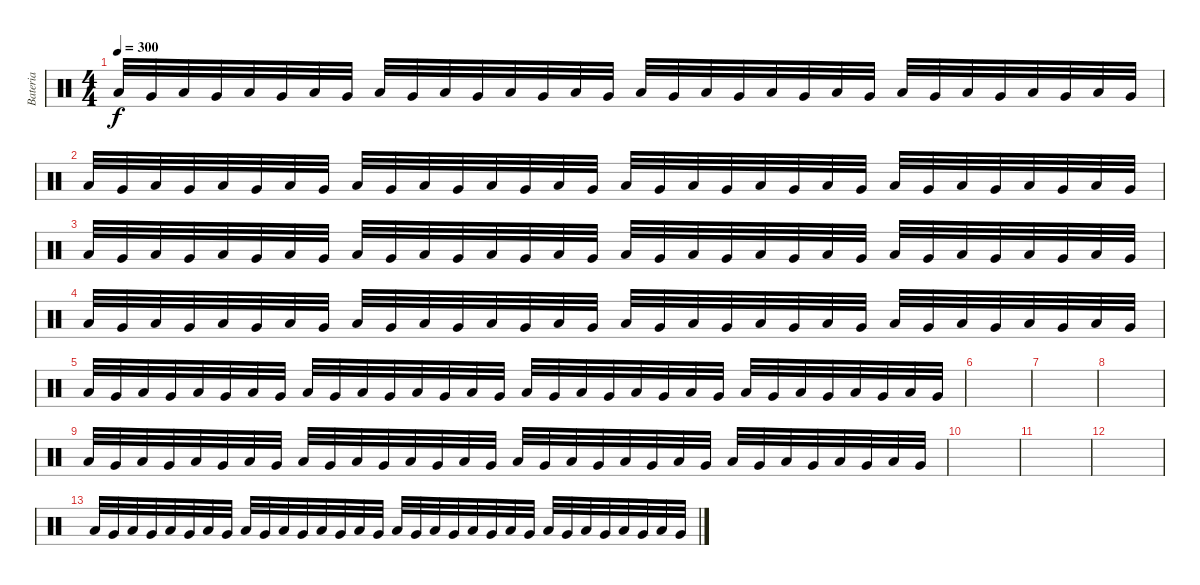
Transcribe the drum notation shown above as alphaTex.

\track ("Bateria" "Bateria") {instrument percussion}
\staff {score}
\articulation defaults
\ts (4 4)
\tempo 300
\clef neutral
\ks c "Low Tom (hit)".32{dy f} "Very Low Tom (hit)".32 "Low Tom (hit)".32 "Very Low Tom (hit)".32 "Low Tom (hit)".32 "Very Low Tom (hit)".32 "Low Tom (hit)".32 "Very Low Tom (hit)".32 "Low Tom (hit)".32 "Very Low Tom (hit)".32 "Low Tom (hit)".32 "Very Low Tom (hit)".32 "Low Tom (hit)".32 "Very Low Tom (hit)".32 "Low Tom (hit)".32 "Very Low Tom (hit)".32 "Low Tom (hit)".32 "Very Low Tom (hit)".32 "Low Tom (hit)".32 "Very Low Tom (hit)".32 "Low Tom (hit)".32 "Very Low Tom (hit)".32 "Low Tom (hit)".32 "Very Low Tom (hit)".32 "Low Tom (hit)".32 "Very Low Tom (hit)".32 "Low Tom (hit)".32 "Very Low Tom (hit)".32 "Low Tom (hit)".32 "Very Low Tom (hit)".32 "Low Tom (hit)".32 "Very Low Tom (hit)".32
|
"Low Tom (hit)".32 "Very Low Tom (hit)".32 "Low Tom (hit)".32 "Very Low Tom (hit)".32 "Low Tom (hit)".32 "Very Low Tom (hit)".32 "Low Tom (hit)".32 "Very Low Tom (hit)".32 "Low Tom (hit)".32 "Very Low Tom (hit)".32 "Low Tom (hit)".32 "Very Low Tom (hit)".32 "Low Tom (hit)".32 "Very Low Tom (hit)".32 "Low Tom (hit)".32 "Very Low Tom (hit)".32 "Low Tom (hit)".32 "Very Low Tom (hit)".32 "Low Tom (hit)".32 "Very Low Tom (hit)".32 "Low Tom (hit)".32 "Very Low Tom (hit)".32 "Low Tom (hit)".32 "Very Low Tom (hit)".32 "Low Tom (hit)".32 "Very Low Tom (hit)".32 "Low Tom (hit)".32 "Very Low Tom (hit)".32 "Low Tom (hit)".32 "Very Low Tom (hit)".32 "Low Tom (hit)".32 "Very Low Tom (hit)".32 |
"Low Tom (hit)".32 "Very Low Tom (hit)".32 "Low Tom (hit)".32 "Very Low Tom (hit)".32 "Low Tom (hit)".32 "Very Low Tom (hit)".32 "Low Tom (hit)".32 "Very Low Tom (hit)".32 "Low Tom (hit)".32 "Very Low Tom (hit)".32 "Low Tom (hit)".32 "Very Low Tom (hit)".32 "Low Tom (hit)".32 "Very Low Tom (hit)".32 "Low Tom (hit)".32 "Very Low Tom (hit)".32 "Low Tom (hit)".32 "Very Low Tom (hit)".32 "Low Tom (hit)".32 "Very Low Tom (hit)".32 "Low Tom (hit)".32 "Very Low Tom (hit)".32 "Low Tom (hit)".32 "Very Low Tom (hit)".32 "Low Tom (hit)".32 "Very Low Tom (hit)".32 "Low Tom (hit)".32 "Very Low Tom (hit)".32 "Low Tom (hit)".32 "Very Low Tom (hit)".32 "Low Tom (hit)".32 "Very Low Tom (hit)".32 |
"Low Tom (hit)".32 "Very Low Tom (hit)".32 "Low Tom (hit)".32 "Very Low Tom (hit)".32 "Low Tom (hit)".32 "Very Low Tom (hit)".32 "Low Tom (hit)".32 "Very Low Tom (hit)".32 "Low Tom (hit)".32 "Very Low Tom (hit)".32 "Low Tom (hit)".32 "Very Low Tom (hit)".32 "Low Tom (hit)".32 "Very Low Tom (hit)".32 "Low Tom (hit)".32 "Very Low Tom (hit)".32 "Low Tom (hit)".32 "Very Low Tom (hit)".32 "Low Tom (hit)".32 "Very Low Tom (hit)".32 "Low Tom (hit)".32 "Very Low Tom (hit)".32 "Low Tom (hit)".32 "Very Low Tom (hit)".32 "Low Tom (hit)".32 "Very Low Tom (hit)".32 "Low Tom (hit)".32 "Very Low Tom (hit)".32 "Low Tom (hit)".32 "Very Low Tom (hit)".32 "Low Tom (hit)".32 "Very Low Tom (hit)".32 |
"Low Tom (hit)".32 "Very Low Tom (hit)".32 "Low Tom (hit)".32 "Very Low Tom (hit)".32 "Low Tom (hit)".32 "Very Low Tom (hit)".32 "Low Tom (hit)".32 "Very Low Tom (hit)".32 "Low Tom (hit)".32 "Very Low Tom (hit)".32 "Low Tom (hit)".32 "Very Low Tom (hit)".32 "Low Tom (hit)".32 "Very Low Tom (hit)".32 "Low Tom (hit)".32 "Very Low Tom (hit)".32 "Low Tom (hit)".32 "Very Low Tom (hit)".32 "Low Tom (hit)".32 "Very Low Tom (hit)".32 "Low Tom (hit)".32 "Very Low Tom (hit)".32 "Low Tom (hit)".32 "Very Low Tom (hit)".32 "Low Tom (hit)".32 "Very Low Tom (hit)".32 "Low Tom (hit)".32 "Very Low Tom (hit)".32 "Low Tom (hit)".32 "Very Low Tom (hit)".32 "Low Tom (hit)".32 "Very Low Tom (hit)".32 |
|
|
|
"Low Tom (hit)".32 "Very Low Tom (hit)".32 "Low Tom (hit)".32 "Very Low Tom (hit)".32 "Low Tom (hit)".32 "Very Low Tom (hit)".32 "Low Tom (hit)".32 "Very Low Tom (hit)".32 "Low Tom (hit)".32 "Very Low Tom (hit)".32 "Low Tom (hit)".32 "Very Low Tom (hit)".32 "Low Tom (hit)".32 "Very Low Tom (hit)".32 "Low Tom (hit)".32 "Very Low Tom (hit)".32 "Low Tom (hit)".32 "Very Low Tom (hit)".32 "Low Tom (hit)".32 "Very Low Tom (hit)".32 "Low Tom (hit)".32 "Very Low Tom (hit)".32 "Low Tom (hit)".32 "Very Low Tom (hit)".32 "Low Tom (hit)".32 "Very Low Tom (hit)".32 "Low Tom (hit)".32 "Very Low Tom (hit)".32 "Low Tom (hit)".32 "Very Low Tom (hit)".32 "Low Tom (hit)".32 "Very Low Tom (hit)".32 |
|
|
|
"Low Tom (hit)".32 "Very Low Tom (hit)".32 "Low Tom (hit)".32 "Very Low Tom (hit)".32 "Low Tom (hit)".32 "Very Low Tom (hit)".32 "Low Tom (hit)".32 "Very Low Tom (hit)".32 "Low Tom (hit)".32 "Very Low Tom (hit)".32 "Low Tom (hit)".32 "Very Low Tom (hit)".32 "Low Tom (hit)".32 "Very Low Tom (hit)".32 "Low Tom (hit)".32 "Very Low Tom (hit)".32 "Low Tom (hit)".32 "Very Low Tom (hit)".32 "Low Tom (hit)".32 "Very Low Tom (hit)".32 "Low Tom (hit)".32 "Very Low Tom (hit)".32 "Low Tom (hit)".32 "Very Low Tom (hit)".32 "Low Tom (hit)".32 "Very Low Tom (hit)".32 "Low Tom (hit)".32 "Very Low Tom (hit)".32 "Low Tom (hit)".32 "Very Low Tom (hit)".32 "Low Tom (hit)".32 "Very Low Tom (hit)".32
